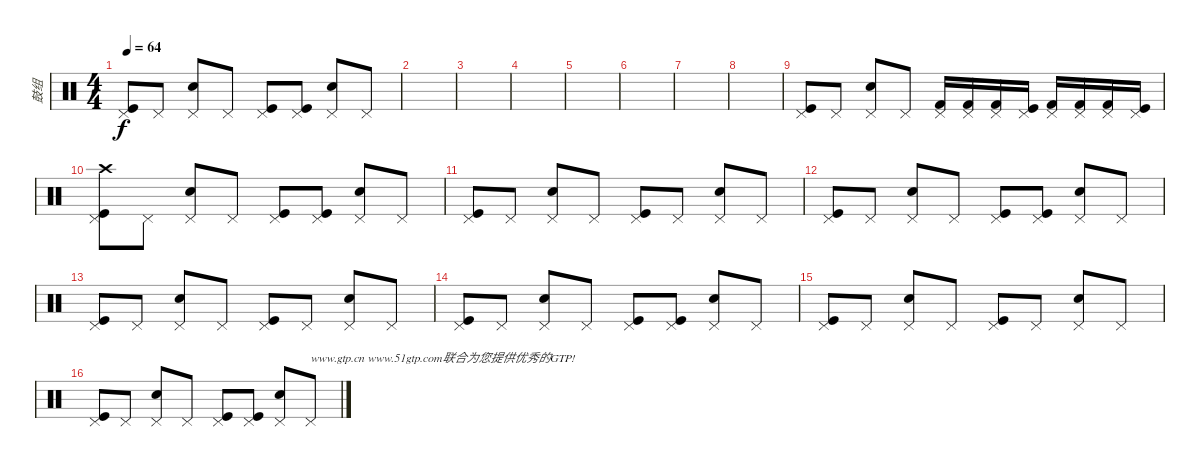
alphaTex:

\track ("鼓组" "鼓组") {instrument percussion}
\staff {score}
\articulation defaults
\ts (4 4)
\tempo 64
\clef neutral
\ks c
("Kick (hit)" "Pedal Hi-Hat (hit)").8{dy f} "Pedal Hi-Hat (hit)".8 ("Snare (hit) 2" "Pedal Hi-Hat (hit)").8 "Pedal Hi-Hat (hit)".8 ("Kick (hit)" "Pedal Hi-Hat (hit)").8 ("Kick (hit)" "Pedal Hi-Hat (hit)").8 ("Snare (hit) 2" "Pedal Hi-Hat (hit)").8 "Pedal Hi-Hat (hit)".8 |
|
|
|
|
|
|
|
("Kick (hit)" "Pedal Hi-Hat (hit)").8 "Pedal Hi-Hat (hit)".8 ("Snare (hit) 2" "Pedal Hi-Hat (hit)").8 "Pedal Hi-Hat (hit)".8 ("Kick (hit) 2" "Pedal Hi-Hat (hit)").16 ("Kick (hit) 2" "Pedal Hi-Hat (hit)").16 ("Kick (hit) 2" "Pedal Hi-Hat (hit)").16 ("Kick (hit)" "Pedal Hi-Hat (hit)").16 ("Kick (hit) 2" "Pedal Hi-Hat (hit)").16 ("Kick (hit) 2" "Pedal Hi-Hat (hit)").16 ("Kick (hit) 2" "Pedal Hi-Hat (hit)").16 ("Kick (hit)" "Pedal Hi-Hat (hit)").16 |
("Kick (hit)" "Pedal Hi-Hat (hit)" "Crash high (hit)").8 "Pedal Hi-Hat (hit)".8 ("Snare (hit) 2" "Pedal Hi-Hat (hit)").8 "Pedal Hi-Hat (hit)".8 ("Kick (hit)" "Pedal Hi-Hat (hit)").8 ("Kick (hit)" "Pedal Hi-Hat (hit)").8 ("Snare (hit) 2" "Pedal Hi-Hat (hit)").8 "Pedal Hi-Hat (hit)".8 |
("Kick (hit)" "Pedal Hi-Hat (hit)").8 "Pedal Hi-Hat (hit)".8 ("Snare (hit) 2" "Pedal Hi-Hat (hit)").8 "Pedal Hi-Hat (hit)".8 ("Kick (hit)" "Pedal Hi-Hat (hit)").8 "Pedal Hi-Hat (hit)".8 ("Snare (hit) 2" "Pedal Hi-Hat (hit)").8 "Pedal Hi-Hat (hit)".8 |
("Kick (hit)" "Pedal Hi-Hat (hit)").8 "Pedal Hi-Hat (hit)".8 ("Snare (hit) 2" "Pedal Hi-Hat (hit)").8 "Pedal Hi-Hat (hit)".8 ("Kick (hit)" "Pedal Hi-Hat (hit)").8 ("Kick (hit)" "Pedal Hi-Hat (hit)").8 ("Snare (hit) 2" "Pedal Hi-Hat (hit)").8 "Pedal Hi-Hat (hit)".8 |
("Kick (hit)" "Pedal Hi-Hat (hit)").8 "Pedal Hi-Hat (hit)".8 ("Snare (hit) 2" "Pedal Hi-Hat (hit)").8 "Pedal Hi-Hat (hit)".8 ("Kick (hit)" "Pedal Hi-Hat (hit)").8 "Pedal Hi-Hat (hit)".8 ("Snare (hit) 2" "Pedal Hi-Hat (hit)").8 "Pedal Hi-Hat (hit)".8 |
("Kick (hit)" "Pedal Hi-Hat (hit)").8 "Pedal Hi-Hat (hit)".8 ("Snare (hit) 2" "Pedal Hi-Hat (hit)").8 "Pedal Hi-Hat (hit)".8 ("Kick (hit)" "Pedal Hi-Hat (hit)").8 ("Kick (hit)" "Pedal Hi-Hat (hit)").8 ("Snare (hit) 2" "Pedal Hi-Hat (hit)").8 "Pedal Hi-Hat (hit)".8 |
("Kick (hit)" "Pedal Hi-Hat (hit)").8 "Pedal Hi-Hat (hit)".8 ("Snare (hit) 2" "Pedal Hi-Hat (hit)").8 "Pedal Hi-Hat (hit)".8 ("Kick (hit)" "Pedal Hi-Hat (hit)").8 "Pedal Hi-Hat (hit)".8 ("Snare (hit) 2" "Pedal Hi-Hat (hit)").8 "Pedal Hi-Hat (hit)".8 |
("Kick (hit)" "Pedal Hi-Hat (hit)").8 "Pedal Hi-Hat (hit)".8 ("Snare (hit) 2" "Pedal Hi-Hat (hit)").8 "Pedal Hi-Hat (hit)".8 ("Kick (hit)" "Pedal Hi-Hat (hit)").8 ("Kick (hit)" "Pedal Hi-Hat (hit)").8 ("Snare (hit) 2" "Pedal Hi-Hat (hit)").8 "Pedal Hi-Hat (hit)".8{txt "www.gtp.cn www.51gtp.com联合为您提供优秀的GTP!"}
